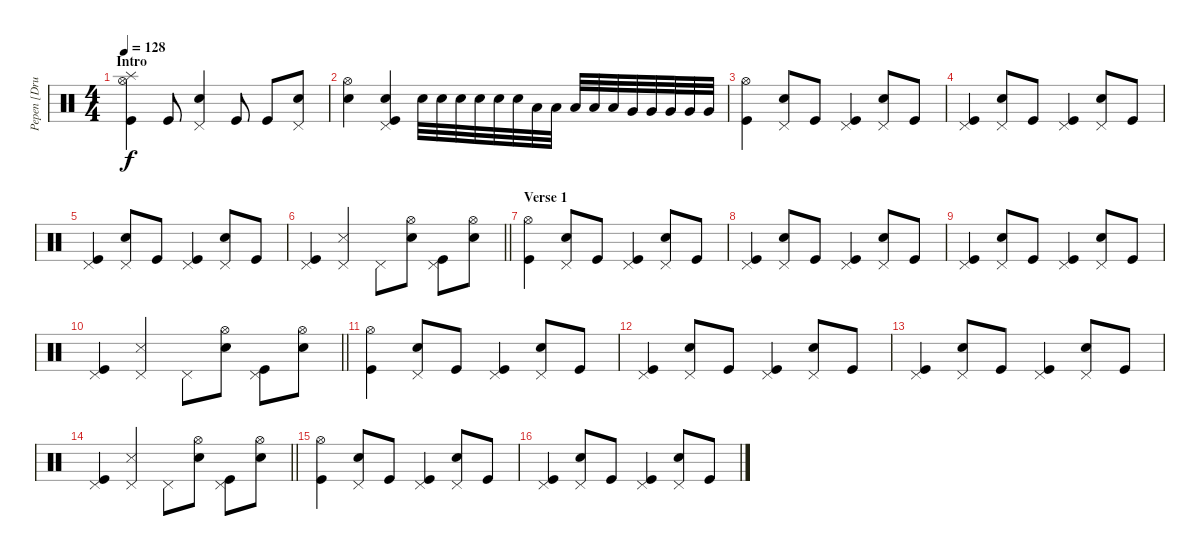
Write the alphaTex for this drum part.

\track ("Pepen [Drum]" "Pepen [Dru") {instrument percussion}
\staff {score}
\articulation defaults
\ts (4 4)
\section ("" "Intro")
\tempo 128
\clef neutral
\ks c
("Hi-Hat (open)" "Kick (hit)" "Splash (hit)").4{dy f} "Kick (hit)".8 ("Pedal Hi-Hat (hit)" "Electric Snare (hit)").4 "Kick (hit)".8 "Kick (hit)".8 ("Pedal Hi-Hat (hit)" "Electric Snare (hit)").8 |
("Hi-Hat (open)" "Electric Snare (hit)").4 ("Pedal Hi-Hat (hit)" "Kick (hit)" "Snare (hit) 2").4 "Electric Snare (hit)".32 "Electric Snare (hit)".32 "Electric Snare (hit)".32 "Electric Snare (hit)".32 "Electric Snare (hit)".32 "Electric Snare (hit)".32 "Low Floor Tom (hit)".32 "Low Floor Tom (hit)".32 "Low Floor Tom (hit)".32 "Low Floor Tom (hit)".32 "Low Floor Tom (hit)".32 "Very Low Tom (hit)".32 "Very Low Tom (hit)".32 "Very Low Tom (hit)".32 "Very Low Tom (hit)".32 "Very Low Tom (hit)".32 |
("Hi-Hat (open)" "Kick (hit)").4 ("Pedal Hi-Hat (hit)" "Electric Snare (hit)").8 "Kick (hit)".8 ("Pedal Hi-Hat (hit)" "Kick (hit)").4 ("Pedal Hi-Hat (hit)" "Electric Snare (hit)").8 "Kick (hit)".8 |
("Pedal Hi-Hat (hit)" "Kick (hit)").4 ("Pedal Hi-Hat (hit)" "Electric Snare (hit)").8 "Kick (hit)".8 ("Pedal Hi-Hat (hit)" "Kick (hit)").4 ("Pedal Hi-Hat (hit)" "Electric Snare (hit)").8 "Kick (hit)".8 |
("Pedal Hi-Hat (hit)" "Kick (hit)").4 ("Pedal Hi-Hat (hit)" "Electric Snare (hit)").8 "Kick (hit)".8 ("Pedal Hi-Hat (hit)" "Kick (hit)").4 ("Pedal Hi-Hat (hit)" "Electric Snare (hit)").8 "Kick (hit)".8 |
\barLineRight lightlight
("Pedal Hi-Hat (hit)" "Kick (hit)").4 ("Pedal Hi-Hat (hit)" "Snare (side stick) 3").4 "Pedal Hi-Hat (hit)".8 ("Hi-Hat (open)" "Electric Snare (hit)").8 ("Pedal Hi-Hat (hit)" "Kick (hit)").8 ("Hi-Hat (open)" "Electric Snare (hit)").8 |
\section ("" "Verse 1")
("Hi-Hat (open)" "Kick (hit)").4 ("Pedal Hi-Hat (hit)" "Electric Snare (hit)").8 "Kick (hit)".8 ("Pedal Hi-Hat (hit)" "Kick (hit)").4 ("Pedal Hi-Hat (hit)" "Electric Snare (hit)").8 "Kick (hit)".8 |
("Pedal Hi-Hat (hit)" "Kick (hit)").4 ("Pedal Hi-Hat (hit)" "Electric Snare (hit)").8 "Kick (hit)".8 ("Pedal Hi-Hat (hit)" "Kick (hit)").4 ("Pedal Hi-Hat (hit)" "Electric Snare (hit)").8 "Kick (hit)".8 |
("Pedal Hi-Hat (hit)" "Kick (hit)").4 ("Pedal Hi-Hat (hit)" "Electric Snare (hit)").8 "Kick (hit)".8 ("Pedal Hi-Hat (hit)" "Kick (hit)").4 ("Pedal Hi-Hat (hit)" "Electric Snare (hit)").8 "Kick (hit)".8 |
\barLineRight lightlight
("Pedal Hi-Hat (hit)" "Kick (hit)").4 ("Pedal Hi-Hat (hit)" "Snare (side stick) 3").4 "Pedal Hi-Hat (hit)".8 ("Hi-Hat (open)" "Electric Snare (hit)").8 ("Pedal Hi-Hat (hit)" "Kick (hit)").8 ("Hi-Hat (open)" "Electric Snare (hit)").8 |
("Hi-Hat (open)" "Kick (hit)").4 ("Pedal Hi-Hat (hit)" "Electric Snare (hit)").8 "Kick (hit)".8 ("Pedal Hi-Hat (hit)" "Kick (hit)").4 ("Pedal Hi-Hat (hit)" "Electric Snare (hit)").8 "Kick (hit)".8 |
("Pedal Hi-Hat (hit)" "Kick (hit)").4 ("Pedal Hi-Hat (hit)" "Electric Snare (hit)").8 "Kick (hit)".8 ("Pedal Hi-Hat (hit)" "Kick (hit)").4 ("Pedal Hi-Hat (hit)" "Electric Snare (hit)").8 "Kick (hit)".8 |
("Pedal Hi-Hat (hit)" "Kick (hit)").4 ("Pedal Hi-Hat (hit)" "Electric Snare (hit)").8 "Kick (hit)".8 ("Pedal Hi-Hat (hit)" "Kick (hit)").4 ("Pedal Hi-Hat (hit)" "Electric Snare (hit)").8 "Kick (hit)".8 |
\barLineRight lightlight
("Pedal Hi-Hat (hit)" "Kick (hit)").4 ("Pedal Hi-Hat (hit)" "Snare (side stick) 3").4 "Pedal Hi-Hat (hit)".8 ("Hi-Hat (open)" "Electric Snare (hit)").8 ("Pedal Hi-Hat (hit)" "Kick (hit)").8 ("Hi-Hat (open)" "Electric Snare (hit)").8 |
("Hi-Hat (open)" "Kick (hit)").4 ("Pedal Hi-Hat (hit)" "Electric Snare (hit)").8 "Kick (hit)".8 ("Pedal Hi-Hat (hit)" "Kick (hit)").4 ("Pedal Hi-Hat (hit)" "Electric Snare (hit)").8 "Kick (hit)".8 |
("Pedal Hi-Hat (hit)" "Kick (hit)").4 ("Pedal Hi-Hat (hit)" "Electric Snare (hit)").8 "Kick (hit)".8 ("Pedal Hi-Hat (hit)" "Kick (hit)").4 ("Pedal Hi-Hat (hit)" "Electric Snare (hit)").8 "Kick (hit)".8
